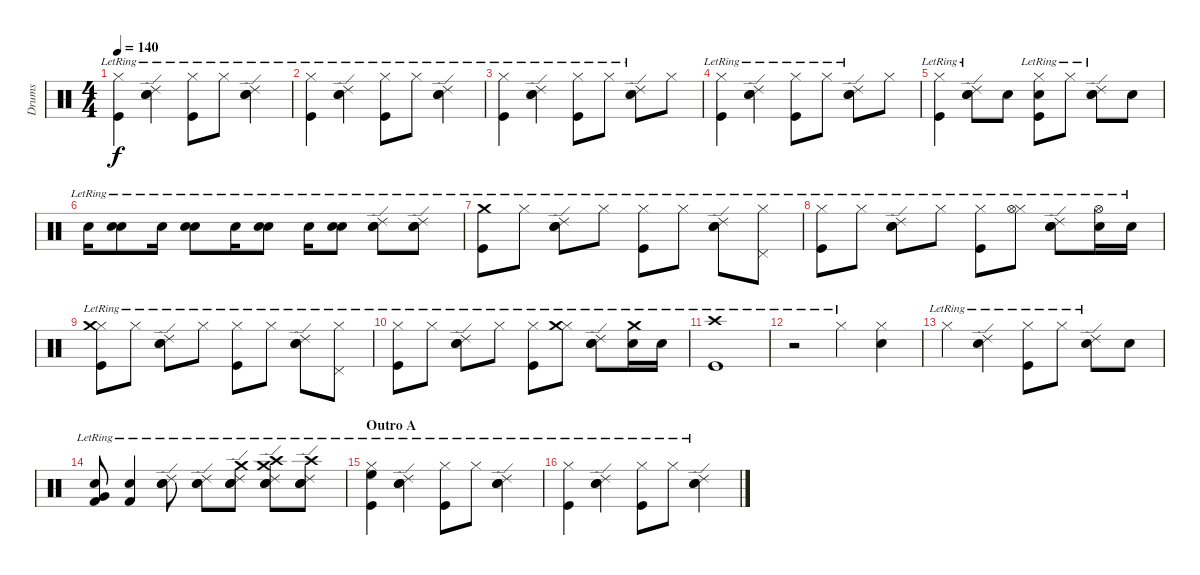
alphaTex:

\track ("Drums" "Drums") {instrument percussion}
\staff {score}
\articulation defaults
\ts (4 4)
\tempo 140
\clef neutral
\ks c
("Hi-Hat (closed)"{lr} "Kick (hit)"{lr}).4{dy f} ("Electric Snare (hit)"{lr} "Ride (edge) 2"{lr} "Snare (hit) 2"{lr}).4 ("Hi-Hat (closed)"{lr} "Kick (hit)"{lr}).8 "Hi-Hat (closed)"{lr}.8 ("Electric Snare (hit)"{lr} "Ride (edge) 2"{lr} "Snare (hit) 2"{lr}).4 |
("Hi-Hat (closed)"{lr} "Kick (hit)"{lr}).4 ("Electric Snare (hit)"{lr} "Ride (edge) 2"{lr} "Snare (hit) 2"{lr}).4 ("Hi-Hat (closed)"{lr} "Kick (hit)"{lr}).8 "Hi-Hat (closed)"{lr}.8 ("Electric Snare (hit)"{lr} "Ride (edge) 2"{lr} "Snare (hit) 2"{lr}).4 |
("Hi-Hat (closed)"{lr} "Kick (hit)"{lr}).4 ("Electric Snare (hit)"{lr} "Ride (edge) 2"{lr} "Snare (hit) 2"{lr}).4 ("Hi-Hat (closed)"{lr} "Kick (hit)"{lr}).8 "Hi-Hat (closed)"{lr}.8 ("Electric Snare (hit)"{lr} "Ride (edge) 2"{lr} "Snare (hit) 2"{lr}).8 "Hi-Hat (closed)".8 |
("Hi-Hat (closed)"{lr} "Kick (hit)"{lr}).4 ("Electric Snare (hit)"{lr} "Ride (edge) 2"{lr} "Snare (hit) 2"{lr}).4 ("Hi-Hat (closed)"{lr} "Kick (hit)"{lr}).8 "Hi-Hat (closed)"{lr}.8 ("Electric Snare (hit)"{lr} "Ride (edge) 2"{lr} "Snare (hit) 2"{lr}).8 "Hi-Hat (closed)".8 |
("Hi-Hat (closed)"{lr} "Kick (hit)"{lr}).4 ("Electric Snare (hit)"{lr} "Ride (edge) 2"{lr} "Snare (hit) 2"{lr}).8 "Snare (hit) 2".8 ("Hi-Hat (closed)"{lr} "Electric Snare (hit)" "Kick (hit)"{lr}).8 "Hi-Hat (closed)"{lr}.8 ("Electric Snare (hit)"{lr} "Ride (edge) 2"{lr} "Snare (hit) 2"{lr}).8 "Snare (hit) 2".8 |
"Snare (hit) 2"{lr}.16 ("Snare (hit) 2"{lr} "Electric Snare (hit)"{lr}).8 "Snare (hit) 2"{lr}.16 ("Snare (hit) 2"{lr} "Electric Snare (hit)"{lr}).8 "Snare (hit) 2"{lr}.16 ("Snare (hit) 2"{lr} "Electric Snare (hit)"{lr}).8 "Snare (hit) 2"{lr}.16 ("Snare (hit) 2"{lr} "Electric Snare (hit)"{lr}).8 ("Snare (hit) 2"{lr} "Electric Snare (hit)"{lr} "Ride (edge) 2"{lr}).8 ("Snare (hit) 2"{lr} "Electric Snare (hit)"{lr} "Ride (edge) 2"{lr}).8 |
("Crash medium (hit)"{lr} "Kick (hit)"{lr}).8 "Hi-Hat (closed)"{lr}.8 ("Electric Snare (hit)"{lr} "Ride (edge) 2"{lr} "Snare (hit) 2"{lr}).8 "Hi-Hat (closed)"{lr}.8 ("Hi-Hat (closed)"{lr} "Kick (hit)"{lr}).8 "Hi-Hat (closed)"{lr}.8 ("Electric Snare (hit)"{lr} "Ride (edge) 2"{lr} "Snare (hit) 2"{lr}).8 ("Hi-Hat (closed)"{lr} "Pedal Hi-Hat (hit)"{lr}).8 |
("Hi-Hat (closed)"{lr} "Kick (hit)"{lr}).8 "Hi-Hat (closed)"{lr}.8 ("Electric Snare (hit)"{lr} "Ride (edge) 2"{lr} "Snare (hit) 2"{lr}).8 "Hi-Hat (closed)"{lr}.8 ("Hi-Hat (closed)"{lr} "Kick (hit)"{lr}).8 ("Hi-Hat (closed)"{lr} "Hi-Hat (open)"{lr}).8 ("Electric Snare (hit)"{lr} "Ride (edge) 2"{lr} "Snare (hit) 2"{lr}).8 ("Hi-Hat (open)"{lr} "Snare (hit) 2"{lr}).16 "Snare (hit) 2"{lr}.16 |
("Hi-Hat (closed)"{lr} "Crash medium (hit)"{lr} "Kick (hit)"{lr}).8 "Hi-Hat (closed)"{lr}.8 ("Electric Snare (hit)"{lr} "Ride (edge) 2"{lr} "Snare (hit) 2"{lr}).8 "Hi-Hat (closed)"{lr}.8 ("Hi-Hat (closed)"{lr} "Kick (hit)"{lr}).8 "Hi-Hat (closed)"{lr}.8 ("Electric Snare (hit)"{lr} "Ride (edge) 2"{lr} "Snare (hit) 2"{lr}).8 ("Hi-Hat (closed)"{lr} "Pedal Hi-Hat (hit)"{lr}).8 |
("Hi-Hat (closed)"{lr} "Kick (hit)"{lr}).8 "Hi-Hat (closed)"{lr}.8 ("Electric Snare (hit)"{lr} "Ride (edge) 2"{lr} "Snare (hit) 2"{lr}).8 "Hi-Hat (closed)"{lr}.8 ("Hi-Hat (closed)"{lr} "Kick (hit)"{lr}).8 ("Hi-Hat (closed)"{lr} "Crash medium (hit)"{lr}).8 ("Electric Snare (hit)"{lr} "Ride (edge) 2"{lr} "Snare (hit) 2"{lr}).8 ("Crash medium (hit)" "Snare (hit) 2"{lr}).16 "Snare (hit) 2"{lr}.16 |
("Crash high (hit)" "Kick (hit)"{lr}).1 |
r.2 "Hi-Hat (closed)"{lr}.4 ("Hi-Hat (closed)" "Snare (hit) 2").4 |
"Hi-Hat (closed)"{lr}.4 ("Ride (edge) 2"{lr} "Snare (hit) 2").4 ("Hi-Hat (closed)"{lr} "Kick (hit)"{lr}).8 "Hi-Hat (closed)"{lr}.8 ("Ride (edge) 2"{lr} "Snare (hit) 2").8 "Snare (hit) 2".8 |
("Kick (hit) 2"{lr} "Very Low Tom (hit)" "Electric Snare (hit)"{lr}).8 ("Kick (hit) 2"{lr} "Electric Snare (hit)"{lr}).4 ("Snare (hit) 2"{lr} "Electric Snare (hit)"{lr} "Ride (edge) 2"{lr}).8 ("Snare (hit) 2"{lr} "Electric Snare (hit)"{lr} "Ride (edge) 2"{lr}).8 ("Snare (hit) 2"{lr} "Electric Snare (hit)"{lr} "Ride (edge) 2"{lr} "Crash medium (hit)").8 ("Snare (hit) 2"{lr} "Electric Snare (hit)"{lr} "Ride (edge) 2"{lr} "Crash high (hit)"{lr} "Crash medium (hit)").8 ("Snare (hit) 2"{lr} "Electric Snare (hit)"{lr} "Ride (edge) 2"{lr} "Crash high (hit)"{lr}).8 |
\section ("" "Outro A")
("Hi-Hat (closed)"{lr} "Kick (hit)"{lr} "High Floor Tom (hit)"{lr}).4 ("Electric Snare (hit)"{lr} "Ride (edge) 2"{lr} "Snare (hit) 2"{lr}).4 ("Hi-Hat (closed)"{lr} "Kick (hit)"{lr}).8 "Hi-Hat (closed)"{lr}.8 ("Electric Snare (hit)"{lr} "Ride (edge) 2"{lr} "Snare (hit) 2"{lr}).4 |
("Hi-Hat (closed)"{lr} "Kick (hit)"{lr}).4 ("Electric Snare (hit)"{lr} "Ride (edge) 2"{lr} "Snare (hit) 2"{lr}).4 ("Hi-Hat (closed)"{lr} "Kick (hit)"{lr}).8 "Hi-Hat (closed)"{lr}.8 ("Electric Snare (hit)"{lr} "Ride (edge) 2"{lr} "Snare (hit) 2"{lr}).4
